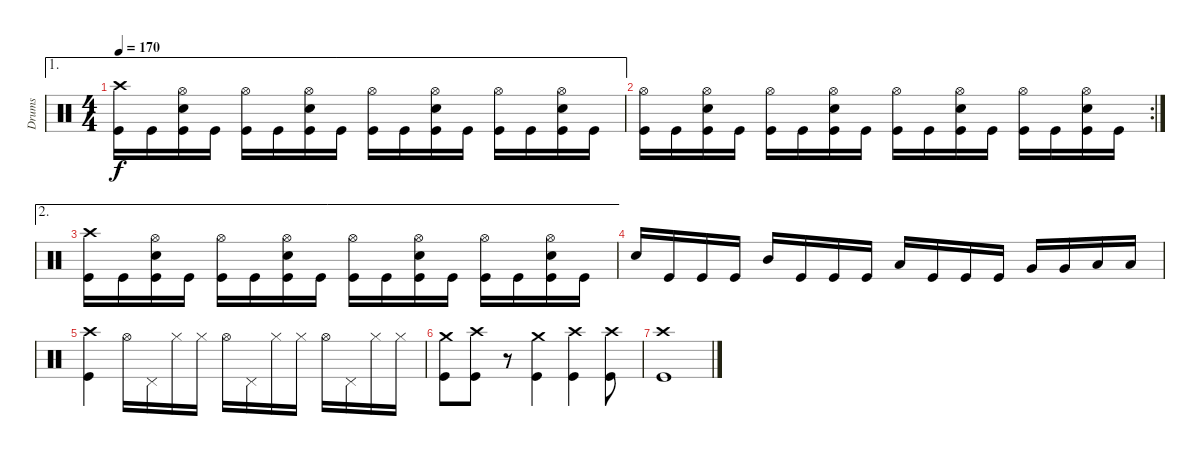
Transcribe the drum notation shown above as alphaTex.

\track ("Drums" "Drums") {instrument percussion}
\staff {score}
\articulation defaults
\ae 1
\ts (4 4)
\tempo 170
\clef neutral
\ks c
("Crash high (hit)" "Kick (hit)").16{dy f} "Kick (hit)".16 ("Hi-Hat (open)" "Snare (hit) 2" "Kick (hit)").16 "Kick (hit)".16 ("Hi-Hat (open)" "Kick (hit)").16 "Kick (hit)".16 ("Hi-Hat (open)" "Snare (hit) 2" "Kick (hit)").16 "Kick (hit)".16 ("Hi-Hat (open)" "Kick (hit)").16 "Kick (hit)".16 ("Hi-Hat (open)" "Snare (hit) 2" "Kick (hit)").16 "Kick (hit)".16 ("Hi-Hat (open)" "Kick (hit)").16 "Kick (hit)".16 ("Hi-Hat (open)" "Snare (hit) 2" "Kick (hit)").16 "Kick (hit)".16 |
\rc 2
("Hi-Hat (open)" "Kick (hit)").16 "Kick (hit)".16 ("Hi-Hat (open)" "Snare (hit) 2" "Kick (hit)").16 "Kick (hit)".16 ("Hi-Hat (open)" "Kick (hit)").16 "Kick (hit)".16 ("Hi-Hat (open)" "Snare (hit) 2" "Kick (hit)").16 "Kick (hit)".16 ("Hi-Hat (open)" "Kick (hit)").16 "Kick (hit)".16 ("Hi-Hat (open)" "Snare (hit) 2" "Kick (hit)").16 "Kick (hit)".16 ("Hi-Hat (open)" "Kick (hit)").16 "Kick (hit)".16 ("Hi-Hat (open)" "Snare (hit) 2" "Kick (hit)").16 "Kick (hit)".16 |
\ae 2
("Crash high (hit)" "Kick (hit)").16 "Kick (hit)".16 ("Hi-Hat (open)" "Snare (hit) 2" "Kick (hit)").16 "Kick (hit)".16 ("Hi-Hat (open)" "Kick (hit)").16 "Kick (hit)".16 ("Hi-Hat (open)" "Snare (hit) 2" "Kick (hit)").16 "Kick (hit)".16 ("Hi-Hat (open)" "Kick (hit)").16 "Kick (hit)".16 ("Hi-Hat (open)" "Snare (hit) 2" "Kick (hit)").16 "Kick (hit)".16 ("Hi-Hat (open)" "Kick (hit)").16 "Kick (hit)".16 ("Hi-Hat (open)" "Snare (hit) 2" "Kick (hit)").16 "Kick (hit)".16 |
"Snare (hit) 2".16 "Kick (hit)".16 "Kick (hit)".16 "Kick (hit)".16 "Mid Tom (hit)".16 "Kick (hit)".16 "Kick (hit)".16 "Kick (hit)".16 "Low Tom (hit)".16 "Kick (hit)".16 "Kick (hit)".16 "Kick (hit)".16 "Very Low Tom (hit)".16 "Very Low Tom (hit)".16 "Low Floor Tom (hit)".16 "Low Floor Tom (hit)".16 |
("Crash high (hit)" "Kick (hit)").4 "Hi-Hat (open)".16 "Pedal Hi-Hat (hit)".16 "Hi-Hat (closed)".16 "Hi-Hat (closed)".16 "Hi-Hat (open)".16 "Pedal Hi-Hat (hit)".16 "Hi-Hat (closed)".16 "Hi-Hat (closed)".16 "Hi-Hat (open)".16 "Pedal Hi-Hat (hit)".16 "Hi-Hat (closed)".16 "Hi-Hat (closed)".16 |
("Crash medium (hit)" "Kick (hit)").8 ("Crash high (hit)" "Kick (hit)").8 r.8 ("Crash medium (hit)" "Kick (hit)").4 ("Crash high (hit)" "Kick (hit)").4 ("Crash high (hit)" "Kick (hit)").8 |
("Crash high (hit)" "Kick (hit)").1
